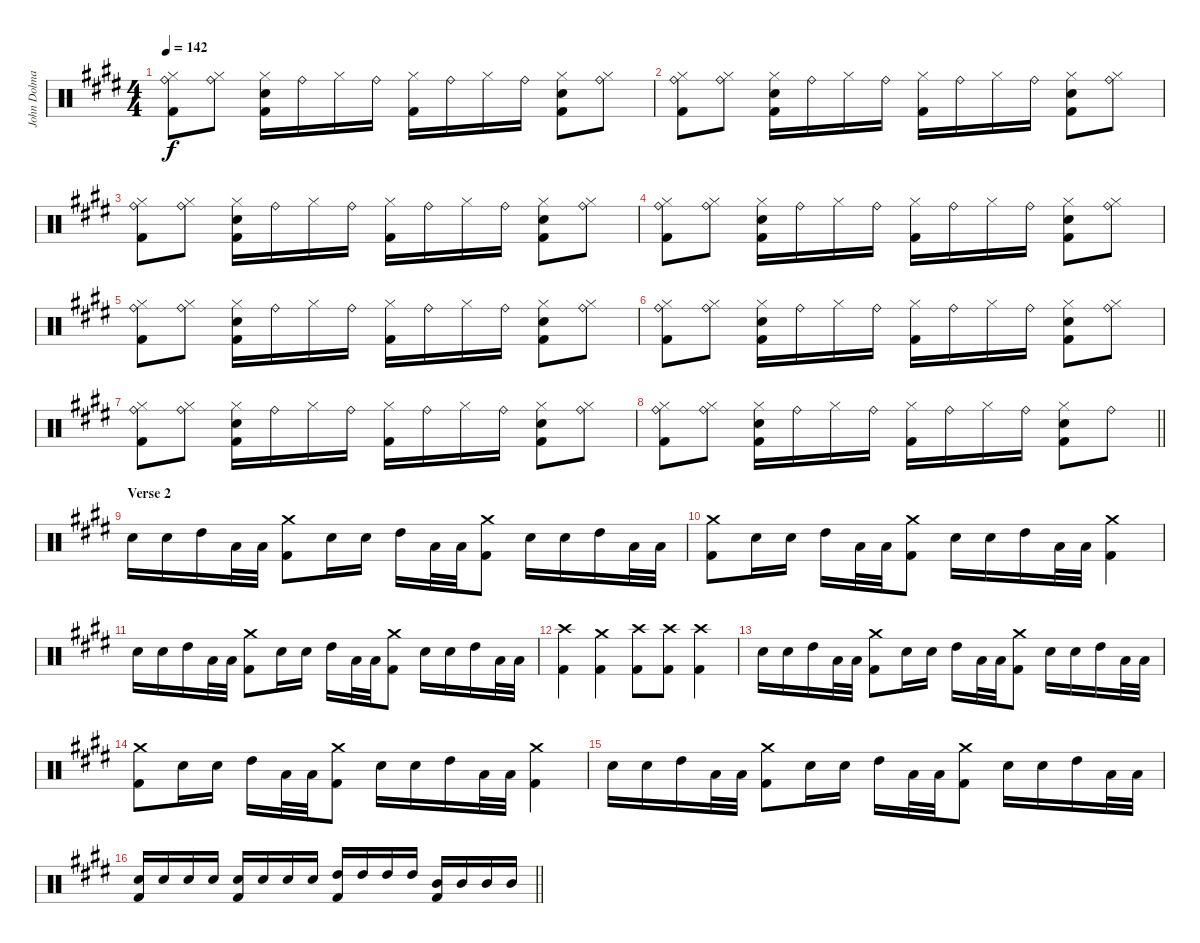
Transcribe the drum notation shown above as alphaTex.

\track ("John Dolmayan [Drums]" "John Dolma") {instrument percussion}
\staff {score}
\articulation defaults
\ts (4 4)
\tempo 142
\clef neutral
\ks c#minor
("Ride (bell)" "Hi-Hat (closed)" "Kick (hit) 2").8{dy f} ("Ride (bell)" "Hi-Hat (closed)").8 ("Hi-Hat (closed)" "Electric Snare (hit)" "Kick (hit) 2").16 "Ride (bell)".16 "Hi-Hat (closed)".16 "Ride (bell)".16 ("Hi-Hat (closed)" "Kick (hit) 2").16 "Ride (bell)".16 "Hi-Hat (closed)".16 "Ride (bell)".16 ("Hi-Hat (closed)" "Electric Snare (hit)" "Kick (hit) 2").8 ("Ride (bell)" "Hi-Hat (closed)").8 |
("Ride (bell)" "Hi-Hat (closed)" "Kick (hit) 2").8 ("Ride (bell)" "Hi-Hat (closed)").8 ("Hi-Hat (closed)" "Electric Snare (hit)" "Kick (hit) 2").16 "Ride (bell)".16 "Hi-Hat (closed)".16 "Ride (bell)".16 ("Hi-Hat (closed)" "Kick (hit) 2").16 "Ride (bell)".16 "Hi-Hat (closed)".16 "Ride (bell)".16 ("Hi-Hat (closed)" "Electric Snare (hit)" "Kick (hit) 2").8 ("Ride (bell)" "Hi-Hat (closed)").8 |
("Ride (bell)" "Hi-Hat (closed)" "Kick (hit) 2").8 ("Ride (bell)" "Hi-Hat (closed)").8 ("Hi-Hat (closed)" "Electric Snare (hit)" "Kick (hit) 2").16 "Ride (bell)".16 "Hi-Hat (closed)".16 "Ride (bell)".16 ("Hi-Hat (closed)" "Kick (hit) 2").16 "Ride (bell)".16 "Hi-Hat (closed)".16 "Ride (bell)".16 ("Hi-Hat (closed)" "Electric Snare (hit)" "Kick (hit) 2").8 ("Ride (bell)" "Hi-Hat (closed)").8 |
("Ride (bell)" "Hi-Hat (closed)" "Kick (hit) 2").8 ("Ride (bell)" "Hi-Hat (closed)").8 ("Hi-Hat (closed)" "Electric Snare (hit)" "Kick (hit) 2").16 "Ride (bell)".16 "Hi-Hat (closed)".16 "Ride (bell)".16 ("Hi-Hat (closed)" "Kick (hit) 2").16 "Ride (bell)".16 "Hi-Hat (closed)".16 "Ride (bell)".16 ("Hi-Hat (closed)" "Electric Snare (hit)" "Kick (hit) 2").8 ("Ride (bell)" "Hi-Hat (closed)").8 |
("Ride (bell)" "Hi-Hat (closed)" "Kick (hit) 2").8 ("Ride (bell)" "Hi-Hat (closed)").8 ("Hi-Hat (closed)" "Electric Snare (hit)" "Kick (hit) 2").16 "Ride (bell)".16 "Hi-Hat (closed)".16 "Ride (bell)".16 ("Hi-Hat (closed)" "Kick (hit) 2").16 "Ride (bell)".16 "Hi-Hat (closed)".16 "Ride (bell)".16 ("Hi-Hat (closed)" "Electric Snare (hit)" "Kick (hit) 2").8 ("Ride (bell)" "Hi-Hat (closed)").8 |
("Ride (bell)" "Hi-Hat (closed)" "Kick (hit) 2").8 ("Ride (bell)" "Hi-Hat (closed)").8 ("Hi-Hat (closed)" "Electric Snare (hit)" "Kick (hit) 2").16 "Ride (bell)".16 "Hi-Hat (closed)".16 "Ride (bell)".16 ("Hi-Hat (closed)" "Kick (hit) 2").16 "Ride (bell)".16 "Hi-Hat (closed)".16 "Ride (bell)".16 ("Hi-Hat (closed)" "Electric Snare (hit)" "Kick (hit) 2").8 ("Ride (bell)" "Hi-Hat (closed)").8 |
("Ride (bell)" "Hi-Hat (closed)" "Kick (hit) 2").8 ("Ride (bell)" "Hi-Hat (closed)").8 ("Hi-Hat (closed)" "Electric Snare (hit)" "Kick (hit) 2").16 "Ride (bell)".16 "Hi-Hat (closed)".16 "Ride (bell)".16 ("Hi-Hat (closed)" "Kick (hit) 2").16 "Ride (bell)".16 "Hi-Hat (closed)".16 "Ride (bell)".16 ("Hi-Hat (closed)" "Electric Snare (hit)" "Kick (hit) 2").8 ("Ride (bell)" "Hi-Hat (closed)").8 |
\barLineRight lightlight
("Ride (bell)" "Hi-Hat (closed)" "Kick (hit) 2").8 ("Ride (bell)" "Hi-Hat (closed)").8 ("Hi-Hat (closed)" "Electric Snare (hit)" "Kick (hit) 2").16 "Ride (bell)".16 "Hi-Hat (closed)".16 "Ride (bell)".16 ("Hi-Hat (closed)" "Kick (hit) 2").16 "Ride (bell)".16 "Hi-Hat (closed)".16 "Ride (bell)".16 ("Hi-Hat (closed)" "Electric Snare (hit)" "Kick (hit) 2").8 "Ride (bell)".8 |
\section ("" "Verse 2")
"Electric Snare (hit)".16 "Electric Snare (hit)".16 "High Tom (hit)".16 "Low Floor Tom (hit)".32 "Low Floor Tom (hit)".32 ("Crash medium (hit)" "Kick (hit) 2").8 "Electric Snare (hit)".16 "Electric Snare (hit)".16 "High Tom (hit)".16 "Low Floor Tom (hit)".32 "Low Floor Tom (hit)".32 ("Crash medium (hit)" "Kick (hit) 2").8 "Electric Snare (hit)".16 "Electric Snare (hit)".16 "High Tom (hit)".16 "Low Floor Tom (hit)".32 "Low Floor Tom (hit)".32 |
("Crash medium (hit)" "Kick (hit) 2").8 "Electric Snare (hit)".16 "Electric Snare (hit)".16 "High Tom (hit)".16 "Low Floor Tom (hit)".32 "Low Floor Tom (hit)".32 ("Crash medium (hit)" "Kick (hit) 2").8 "Electric Snare (hit)".16 "Electric Snare (hit)".16 "High Tom (hit)".16 "Low Floor Tom (hit)".32 "Low Floor Tom (hit)".32 ("Crash medium (hit)" "Kick (hit) 2").4 |
"Electric Snare (hit)".16 "Electric Snare (hit)".16 "High Tom (hit)".16 "Low Floor Tom (hit)".32 "Low Floor Tom (hit)".32 ("Crash medium (hit)" "Kick (hit) 2").8 "Electric Snare (hit)".16 "Electric Snare (hit)".16 "High Tom (hit)".16 "Low Floor Tom (hit)".32 "Low Floor Tom (hit)".32 ("Crash medium (hit)" "Kick (hit) 2").8 "Electric Snare (hit)".16 "Electric Snare (hit)".16 "High Tom (hit)".16 "Low Floor Tom (hit)".32 "Low Floor Tom (hit)".32 |
("Crash high (hit)" "Kick (hit) 2").4 ("Crash medium (hit)" "Kick (hit) 2").4 ("Crash high (hit)" "Kick (hit) 2").8 ("Crash high (hit)" "Kick (hit) 2").8 ("Crash high (hit)" "Kick (hit) 2").4 |
"Electric Snare (hit)".16 "Electric Snare (hit)".16 "High Tom (hit)".16 "Low Floor Tom (hit)".32 "Low Floor Tom (hit)".32 ("Crash medium (hit)" "Kick (hit) 2").8 "Electric Snare (hit)".16 "Electric Snare (hit)".16 "High Tom (hit)".16 "Low Floor Tom (hit)".32 "Low Floor Tom (hit)".32 ("Crash medium (hit)" "Kick (hit) 2").8 "Electric Snare (hit)".16 "Electric Snare (hit)".16 "High Tom (hit)".16 "Low Floor Tom (hit)".32 "Low Floor Tom (hit)".32 |
("Crash medium (hit)" "Kick (hit) 2").8 "Electric Snare (hit)".16 "Electric Snare (hit)".16 "High Tom (hit)".16 "Low Floor Tom (hit)".32 "Low Floor Tom (hit)".32 ("Crash medium (hit)" "Kick (hit) 2").8 "Electric Snare (hit)".16 "Electric Snare (hit)".16 "High Tom (hit)".16 "Low Floor Tom (hit)".32 "Low Floor Tom (hit)".32 ("Crash medium (hit)" "Kick (hit) 2").4 |
"Electric Snare (hit)".16 "Electric Snare (hit)".16 "High Tom (hit)".16 "Low Floor Tom (hit)".32 "Low Floor Tom (hit)".32 ("Crash medium (hit)" "Kick (hit) 2").8 "Electric Snare (hit)".16 "Electric Snare (hit)".16 "High Tom (hit)".16 "Low Floor Tom (hit)".32 "Low Floor Tom (hit)".32 ("Crash medium (hit)" "Kick (hit) 2").8 "Electric Snare (hit)".16 "Electric Snare (hit)".16 "High Tom (hit)".16 "Low Floor Tom (hit)".32 "Low Floor Tom (hit)".32 |
\barLineRight lightlight
("Electric Snare (hit)" "Kick (hit) 2").16 "Electric Snare (hit)".16 "Electric Snare (hit)".16 "Electric Snare (hit)".16 ("Electric Snare (hit)" "Kick (hit) 2").16 "Electric Snare (hit)".16 "Electric Snare (hit)".16 "Electric Snare (hit)".16 ("High Tom (hit)" "Kick (hit) 2").16 "High Tom (hit)".16 "High Tom (hit)".16 "High Tom (hit)".16 ("Mid Tom (hit)" "Kick (hit) 2").16 "Mid Tom (hit)".16 "Mid Tom (hit)".16 "Mid Tom (hit)".16
